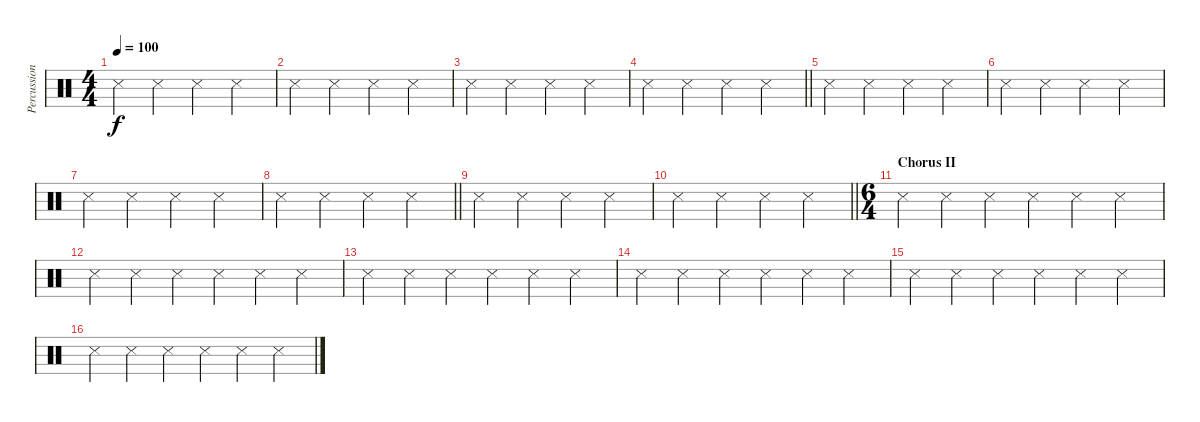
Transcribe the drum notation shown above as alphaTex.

\track ("Percussion" "Percussion") {mute instrument percussion}
\staff {score}
\articulation defaults
\ts (4 4)
\tempo 100
\clef neutral
\ks c "Metronome (hit)".4{dy f} "Snare (side stick) 3".4 "Snare (side stick) 3".4 "Snare (side stick) 3".4
|
"Metronome (hit)".4 "Snare (side stick) 3".4 "Snare (side stick) 3".4 "Snare (side stick) 3".4 |
"Metronome (hit)".4 "Snare (side stick) 3".4 "Snare (side stick) 3".4 "Snare (side stick) 3".4 |
\barLineRight lightlight "Metronome (hit)".4 "Snare (side stick) 3".4 "Snare (side stick) 3".4 "Snare (side stick) 3".4
|
"Metronome (hit)".4 "Snare (side stick) 3".4 "Snare (side stick) 3".4 "Snare (side stick) 3".4 |
"Metronome (hit)".4 "Snare (side stick) 3".4 "Snare (side stick) 3".4 "Snare (side stick) 3".4 |
"Metronome (hit)".4 "Snare (side stick) 3".4 "Snare (side stick) 3".4 "Snare (side stick) 3".4 |
\barLineRight lightlight "Metronome (hit)".4 "Snare (side stick) 3".4 "Snare (side stick) 3".4 "Snare (side stick) 3".4
|
"Metronome (hit)".4 "Snare (side stick) 3".4 "Snare (side stick) 3".4 "Snare (side stick) 3".4 |
\barLineRight lightlight "Metronome (hit)".4 "Snare (side stick) 3".4 "Snare (side stick) 3".4 "Snare (side stick) 3".4
|
\ts (6 4)
\section ("" "Chorus II")
"Metronome (hit)".4 "Snare (side stick) 3".4 "Snare (side stick) 3".4 "Snare (side stick) 3".4 "Snare (side stick) 3".4 "Snare (side stick) 3".4 |
"Metronome (hit)".4 "Snare (side stick) 3".4 "Snare (side stick) 3".4 "Snare (side stick) 3".4 "Snare (side stick) 3".4 "Snare (side stick) 3".4 |
"Metronome (hit)".4 "Snare (side stick) 3".4 "Snare (side stick) 3".4 "Snare (side stick) 3".4 "Snare (side stick) 3".4 "Snare (side stick) 3".4 |
"Metronome (hit)".4 "Snare (side stick) 3".4 "Snare (side stick) 3".4 "Snare (side stick) 3".4 "Snare (side stick) 3".4 "Snare (side stick) 3".4 |
"Metronome (hit)".4 "Snare (side stick) 3".4 "Snare (side stick) 3".4 "Snare (side stick) 3".4 "Snare (side stick) 3".4 "Snare (side stick) 3".4 |
"Metronome (hit)".4 "Snare (side stick) 3".4 "Snare (side stick) 3".4 "Snare (side stick) 3".4 "Snare (side stick) 3".4 "Snare (side stick) 3".4
